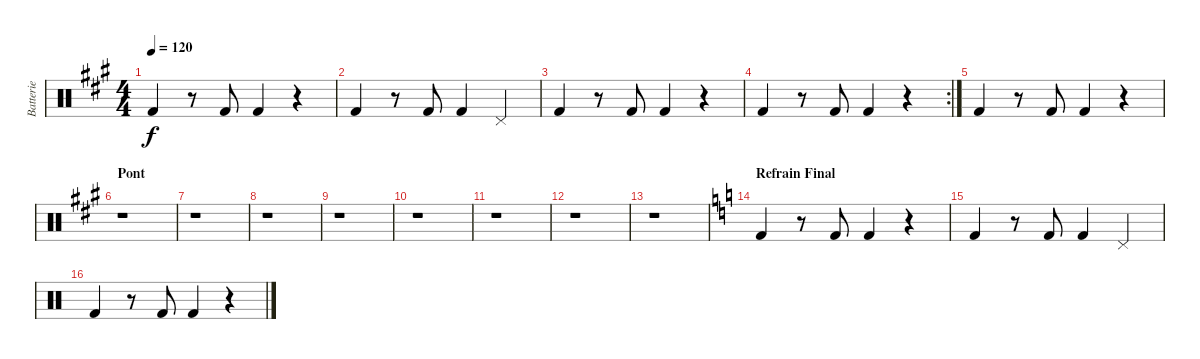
\track ("Batterie" "Batterie") {instrument percussion}
\staff {score}
\articulation defaults
\ts (4 4)
\tempo 120
\clef neutral
\ks a "Kick (hit) 2".4{dy f}
r.8 "Kick (hit) 2".8 "Kick (hit) 2".4 r.4 |
"Kick (hit) 2".4 r.8 "Kick (hit) 2".8 "Kick (hit) 2".4 "Pedal Hi-Hat (hit)".4 |
"Kick (hit) 2".4 r.8 "Kick (hit) 2".8 "Kick (hit) 2".4 r.4 |
\rc 2 "Kick (hit) 2".4
r.8 "Kick (hit) 2".8 "Kick (hit) 2".4 r.4 |
"Kick (hit) 2".4 r.8 "Kick (hit) 2".8 "Kick (hit) 2".4 r.4 |
\section ("" "Pont")
r.1 |
r.1 |
r.1 |
r.1 |
r.1 |
r.1 |
r.1 |
r.1 |
\section ("" "Refrain Final")
\ks c "Kick (hit) 2".4
r.8 "Kick (hit) 2".8 "Kick (hit) 2".4 r.4 |
"Kick (hit) 2".4 r.8 "Kick (hit) 2".8 "Kick (hit) 2".4 "Pedal Hi-Hat (hit)".4 |
"Kick (hit) 2".4 r.8 "Kick (hit) 2".8 "Kick (hit) 2".4 r.4
